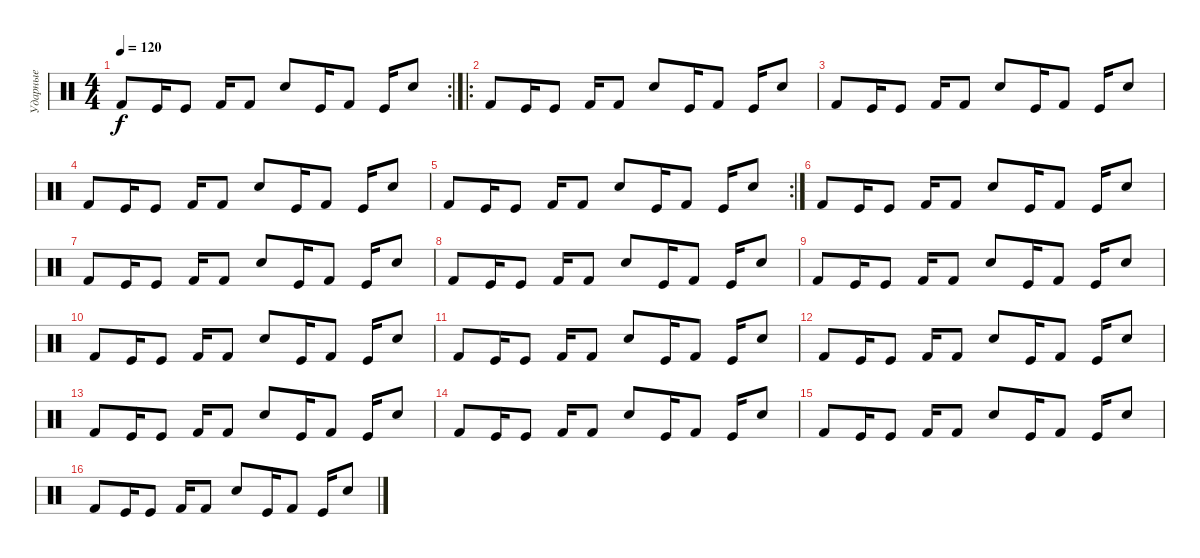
\track ("Ударные" "Ударные") {instrument percussion}
\staff {score}
\articulation defaults
\rc 2
\ts (4 4)
\tempo 120
\clef neutral
\ks c "Kick (hit) 2".8{dy f} "Kick (hit)".16 "Kick (hit)".8 "Kick (hit) 2".16 "Kick (hit) 2".8 "Hand Clap (hit)".8 "Kick (hit)".16 "Kick (hit) 2".8 "Kick (hit)".16 "Snare (hit) 2".8
|
\ro "Kick (hit) 2".8 "Kick (hit)".16 "Kick (hit)".8 "Kick (hit) 2".16 "Kick (hit) 2".8 "Hand Clap (hit)".8 "Kick (hit)".16 "Kick (hit) 2".8 "Kick (hit)".16 "Snare (hit) 2".8
|
"Kick (hit) 2".8 "Kick (hit)".16 "Kick (hit)".8 "Kick (hit) 2".16 "Kick (hit) 2".8 "Hand Clap (hit)".8 "Kick (hit)".16 "Kick (hit) 2".8 "Kick (hit)".16 "Snare (hit) 2".8 |
"Kick (hit) 2".8 "Kick (hit)".16 "Kick (hit)".8 "Kick (hit) 2".16 "Kick (hit) 2".8 "Hand Clap (hit)".8 "Kick (hit)".16 "Kick (hit) 2".8 "Kick (hit)".16 "Snare (hit) 2".8 |
\rc 2 "Kick (hit) 2".8 "Kick (hit)".16 "Kick (hit)".8 "Kick (hit) 2".16 "Kick (hit) 2".8 "Hand Clap (hit)".8 "Kick (hit)".16 "Kick (hit) 2".8 "Kick (hit)".16 "Snare (hit) 2".8
|
"Kick (hit) 2".8 "Kick (hit)".16 "Kick (hit)".8 "Kick (hit) 2".16 "Kick (hit) 2".8 "Hand Clap (hit)".8 "Kick (hit)".16 "Kick (hit) 2".8 "Kick (hit)".16 "Snare (hit) 2".8 |
"Kick (hit) 2".8 "Kick (hit)".16 "Kick (hit)".8 "Kick (hit) 2".16 "Kick (hit) 2".8 "Hand Clap (hit)".8 "Kick (hit)".16 "Kick (hit) 2".8 "Kick (hit)".16 "Snare (hit) 2".8 |
"Kick (hit) 2".8 "Kick (hit)".16 "Kick (hit)".8 "Kick (hit) 2".16 "Kick (hit) 2".8 "Hand Clap (hit)".8 "Kick (hit)".16 "Kick (hit) 2".8 "Kick (hit)".16 "Snare (hit) 2".8 |
"Kick (hit) 2".8 "Kick (hit)".16 "Kick (hit)".8 "Kick (hit) 2".16 "Kick (hit) 2".8 "Hand Clap (hit)".8 "Kick (hit)".16 "Kick (hit) 2".8 "Kick (hit)".16 "Snare (hit) 2".8 |
"Kick (hit) 2".8 "Kick (hit)".16 "Kick (hit)".8 "Kick (hit) 2".16 "Kick (hit) 2".8 "Hand Clap (hit)".8 "Kick (hit)".16 "Kick (hit) 2".8 "Kick (hit)".16 "Snare (hit) 2".8 |
"Kick (hit) 2".8 "Kick (hit)".16 "Kick (hit)".8 "Kick (hit) 2".16 "Kick (hit) 2".8 "Hand Clap (hit)".8 "Kick (hit)".16 "Kick (hit) 2".8 "Kick (hit)".16 "Snare (hit) 2".8 |
"Kick (hit) 2".8 "Kick (hit)".16 "Kick (hit)".8 "Kick (hit) 2".16 "Kick (hit) 2".8 "Hand Clap (hit)".8 "Kick (hit)".16 "Kick (hit) 2".8 "Kick (hit)".16 "Snare (hit) 2".8 |
"Kick (hit) 2".8 "Kick (hit)".16 "Kick (hit)".8 "Kick (hit) 2".16 "Kick (hit) 2".8 "Hand Clap (hit)".8 "Kick (hit)".16 "Kick (hit) 2".8 "Kick (hit)".16 "Snare (hit) 2".8 |
"Kick (hit) 2".8 "Kick (hit)".16 "Kick (hit)".8 "Kick (hit) 2".16 "Kick (hit) 2".8 "Hand Clap (hit)".8 "Kick (hit)".16 "Kick (hit) 2".8 "Kick (hit)".16 "Snare (hit) 2".8 |
"Kick (hit) 2".8 "Kick (hit)".16 "Kick (hit)".8 "Kick (hit) 2".16 "Kick (hit) 2".8 "Hand Clap (hit)".8 "Kick (hit)".16 "Kick (hit) 2".8 "Kick (hit)".16 "Snare (hit) 2".8 |
"Kick (hit) 2".8 "Kick (hit)".16 "Kick (hit)".8 "Kick (hit) 2".16 "Kick (hit) 2".8 "Hand Clap (hit)".8 "Kick (hit)".16 "Kick (hit) 2".8 "Kick (hit)".16 "Snare (hit) 2".8
